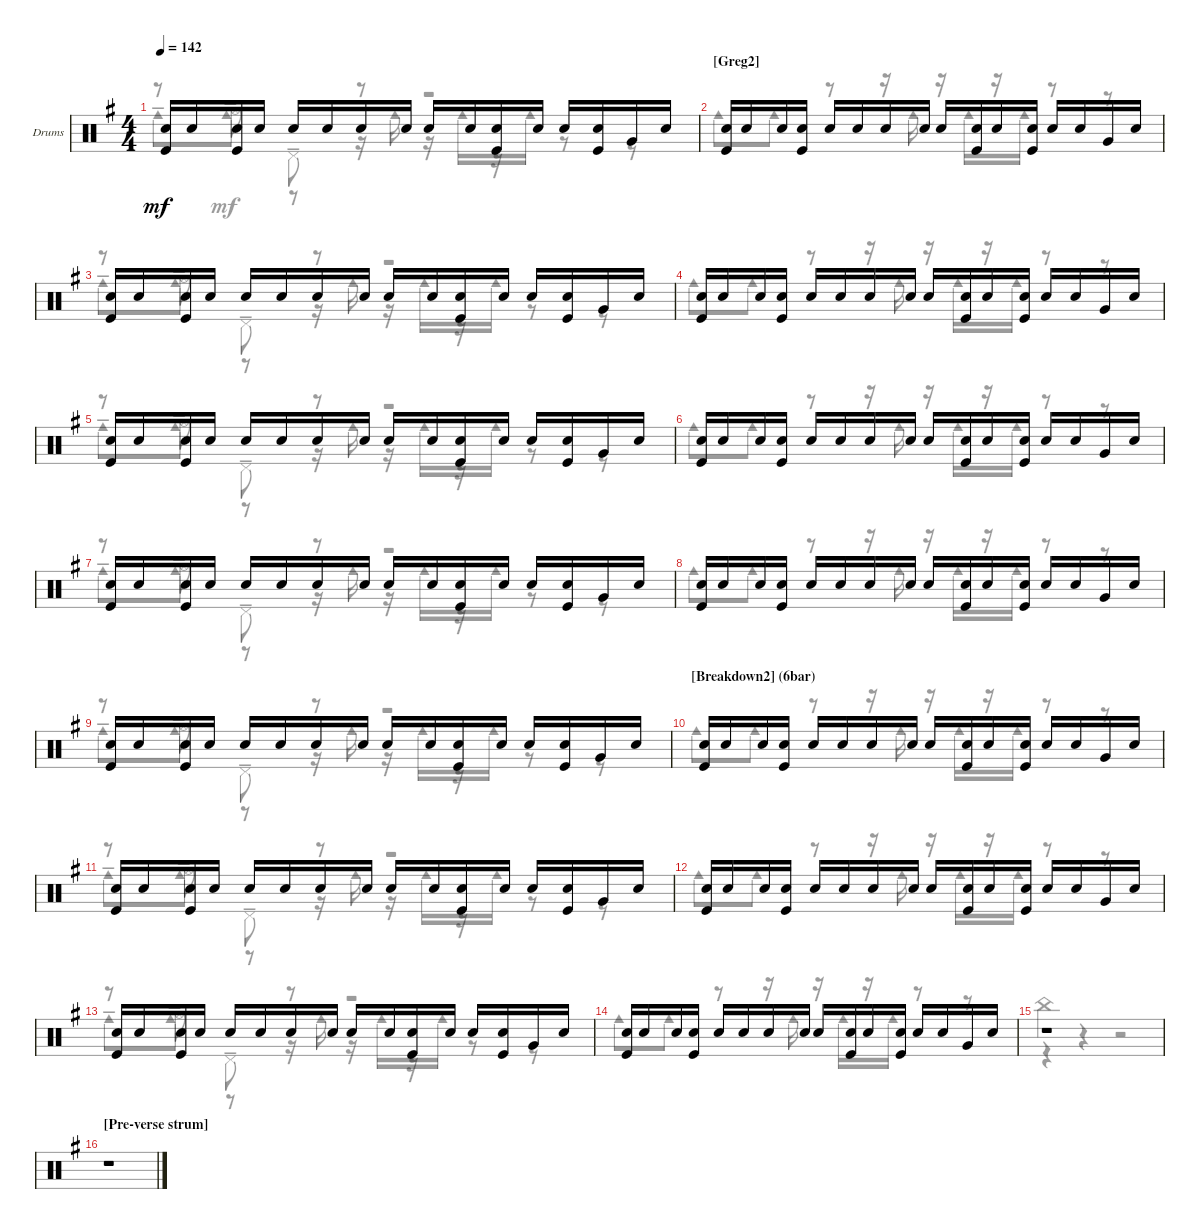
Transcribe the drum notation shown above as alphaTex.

\bracketExtendMode groupsimilarinstruments
\firstSystemTrackNameOrientation horizontal
\otherSystemsTrackNameOrientation horizontal
\track ("Drumkit" "Drums") {instrument percussion}
\staff {score}
\articulation defaults
\voice
\ts (4 4)
\tempo 142
\clef neutral
\ks eminor
("Kick (hit)" "Snare (hit) 2").16{dy mf} "Snare (hit) 2".16 ("Kick (hit)" "Snare (hit) 2").16 "Snare (hit) 2".16 "Snare (hit) 2".16 "Snare (hit) 2".16 "Snare (hit) 2".16 "Snare (hit) 2".16 "Snare (hit) 2".16 "Snare (hit) 2".16 ("Snare (hit) 2" "Kick (hit)").16 "Snare (hit) 2".16 "Snare (hit) 2".16 ("Snare (hit) 2" "Kick (hit)").16 "Very Low Tom (hit)".16 "Snare (hit) 2".16 |
\section ("" "[Greg2]")
("Kick (hit)" "Snare (hit) 2").16 "Snare (hit) 2".16 "Snare (hit) 2".16 ("Snare (hit) 2" "Kick (hit)").16 "Snare (hit) 2".16 "Snare (hit) 2".16 "Snare (hit) 2".16 "Snare (hit) 2".16 "Snare (hit) 2".16 ("Kick (hit)" "Snare (hit) 2").16 "Snare (hit) 2".16 ("Kick (hit)" "Snare (hit) 2").16 "Snare (hit) 2".16 "Snare (hit) 2".16 "Very Low Tom (hit)".16 "Snare (hit) 2".16 |
("Kick (hit)" "Snare (hit) 2").16 "Snare (hit) 2".16 ("Kick (hit)" "Snare (hit) 2").16 "Snare (hit) 2".16 "Snare (hit) 2".16 "Snare (hit) 2".16 "Snare (hit) 2".16 "Snare (hit) 2".16 "Snare (hit) 2".16 "Snare (hit) 2".16 ("Snare (hit) 2" "Kick (hit)").16 "Snare (hit) 2".16 "Snare (hit) 2".16 ("Snare (hit) 2" "Kick (hit)").16 "Very Low Tom (hit)".16 "Snare (hit) 2".16 |
("Kick (hit)" "Snare (hit) 2").16 "Snare (hit) 2".16 "Snare (hit) 2".16 ("Snare (hit) 2" "Kick (hit)").16 "Snare (hit) 2".16 "Snare (hit) 2".16 "Snare (hit) 2".16 "Snare (hit) 2".16 "Snare (hit) 2".16 ("Kick (hit)" "Snare (hit) 2").16 "Snare (hit) 2".16 ("Kick (hit)" "Snare (hit) 2").16 "Snare (hit) 2".16 "Snare (hit) 2".16 "Very Low Tom (hit)".16 "Snare (hit) 2".16 |
("Kick (hit)" "Snare (hit) 2").16 "Snare (hit) 2".16 ("Kick (hit)" "Snare (hit) 2").16 "Snare (hit) 2".16 "Snare (hit) 2".16 "Snare (hit) 2".16 "Snare (hit) 2".16 "Snare (hit) 2".16 "Snare (hit) 2".16 "Snare (hit) 2".16 ("Snare (hit) 2" "Kick (hit)").16 "Snare (hit) 2".16 "Snare (hit) 2".16 ("Snare (hit) 2" "Kick (hit)").16 "Very Low Tom (hit)".16 "Snare (hit) 2".16 |
("Kick (hit)" "Snare (hit) 2").16 "Snare (hit) 2".16 "Snare (hit) 2".16 ("Snare (hit) 2" "Kick (hit)").16 "Snare (hit) 2".16 "Snare (hit) 2".16 "Snare (hit) 2".16 "Snare (hit) 2".16 "Snare (hit) 2".16 ("Kick (hit)" "Snare (hit) 2").16 "Snare (hit) 2".16 ("Kick (hit)" "Snare (hit) 2").16 "Snare (hit) 2".16 "Snare (hit) 2".16 "Very Low Tom (hit)".16 "Snare (hit) 2".16 |
("Kick (hit)" "Snare (hit) 2").16 "Snare (hit) 2".16 ("Kick (hit)" "Snare (hit) 2").16 "Snare (hit) 2".16 "Snare (hit) 2".16 "Snare (hit) 2".16 "Snare (hit) 2".16 "Snare (hit) 2".16 "Snare (hit) 2".16 "Snare (hit) 2".16 ("Snare (hit) 2" "Kick (hit)").16 "Snare (hit) 2".16 "Snare (hit) 2".16 ("Snare (hit) 2" "Kick (hit)").16 "Very Low Tom (hit)".16 "Snare (hit) 2".16 |
("Kick (hit)" "Snare (hit) 2").16 "Snare (hit) 2".16 "Snare (hit) 2".16 ("Snare (hit) 2" "Kick (hit)").16 "Snare (hit) 2".16 "Snare (hit) 2".16 "Snare (hit) 2".16 "Snare (hit) 2".16 "Snare (hit) 2".16 ("Kick (hit)" "Snare (hit) 2").16 "Snare (hit) 2".16 ("Kick (hit)" "Snare (hit) 2").16 "Snare (hit) 2".16 "Snare (hit) 2".16 "Very Low Tom (hit)".16 "Snare (hit) 2".16 |
("Kick (hit)" "Snare (hit) 2").16 "Snare (hit) 2".16 ("Kick (hit)" "Snare (hit) 2").16 "Snare (hit) 2".16 "Snare (hit) 2".16 "Snare (hit) 2".16 "Snare (hit) 2".16 "Snare (hit) 2".16 "Snare (hit) 2".16 "Snare (hit) 2".16 ("Snare (hit) 2" "Kick (hit)").16 "Snare (hit) 2".16 "Snare (hit) 2".16 ("Snare (hit) 2" "Kick (hit)").16 "Very Low Tom (hit)".16 "Snare (hit) 2".16 |
\section ("" "[Breakdown2] (6bar)  ")
("Kick (hit)" "Snare (hit) 2").16 "Snare (hit) 2".16 "Snare (hit) 2".16 ("Snare (hit) 2" "Kick (hit)").16 "Snare (hit) 2".16 "Snare (hit) 2".16 "Snare (hit) 2".16 "Snare (hit) 2".16 "Snare (hit) 2".16 ("Kick (hit)" "Snare (hit) 2").16 "Snare (hit) 2".16 ("Kick (hit)" "Snare (hit) 2").16 "Snare (hit) 2".16 "Snare (hit) 2".16 "Very Low Tom (hit)".16 "Snare (hit) 2".16 |
("Kick (hit)" "Snare (hit) 2").16 "Snare (hit) 2".16 ("Kick (hit)" "Snare (hit) 2").16 "Snare (hit) 2".16 "Snare (hit) 2".16 "Snare (hit) 2".16 "Snare (hit) 2".16 "Snare (hit) 2".16 "Snare (hit) 2".16 "Snare (hit) 2".16 ("Snare (hit) 2" "Kick (hit)").16 "Snare (hit) 2".16 "Snare (hit) 2".16 ("Snare (hit) 2" "Kick (hit)").16 "Very Low Tom (hit)".16 "Snare (hit) 2".16 |
("Kick (hit)" "Snare (hit) 2").16 "Snare (hit) 2".16 "Snare (hit) 2".16 ("Snare (hit) 2" "Kick (hit)").16 "Snare (hit) 2".16 "Snare (hit) 2".16 "Snare (hit) 2".16 "Snare (hit) 2".16 "Snare (hit) 2".16 ("Kick (hit)" "Snare (hit) 2").16 "Snare (hit) 2".16 ("Kick (hit)" "Snare (hit) 2").16 "Snare (hit) 2".16 "Snare (hit) 2".16 "Very Low Tom (hit)".16 "Snare (hit) 2".16 |
("Kick (hit)" "Snare (hit) 2").16 "Snare (hit) 2".16 ("Kick (hit)" "Snare (hit) 2").16 "Snare (hit) 2".16 "Snare (hit) 2".16 "Snare (hit) 2".16 "Snare (hit) 2".16 "Snare (hit) 2".16 "Snare (hit) 2".16 "Snare (hit) 2".16 ("Snare (hit) 2" "Kick (hit)").16 "Snare (hit) 2".16 "Snare (hit) 2".16 ("Snare (hit) 2" "Kick (hit)").16 "Very Low Tom (hit)".16 "Snare (hit) 2".16 |
("Kick (hit)" "Snare (hit) 2").16 "Snare (hit) 2".16 "Snare (hit) 2".16 ("Snare (hit) 2" "Kick (hit)").16 "Snare (hit) 2".16 "Snare (hit) 2".16 "Snare (hit) 2".16 "Snare (hit) 2".16 "Snare (hit) 2".16 ("Kick (hit)" "Snare (hit) 2").16 "Snare (hit) 2".16 ("Kick (hit)" "Snare (hit) 2").16 "Snare (hit) 2".16 "Snare (hit) 2".16 "Very Low Tom (hit)".16 "Snare (hit) 2".16 |
r.1 |
\section ("" "[Pre-verse strum] ")
r.1
\voice
\clef neutral
\ottava regular
\simile none
\ks eminor
r.8{dy mf} "Hi-Hat (open)"{ten}.8 "Pedal Hi-Hat (hit)"{ten}.8 r.8 r.2 |
"Cowbell medium (hit)".8 "Cowbell medium (hit)".8 r.8 r.16 "Cowbell medium (hit)".16 r.16 "Cowbell medium (hit)".16 r.16 "Cowbell medium (hit)".16 r.8 r.8 |
r.8 "Hi-Hat (open)"{ten}.8 "Pedal Hi-Hat (hit)"{ten}.8 r.8 r.2 |
"Cowbell medium (hit)".8 "Cowbell medium (hit)".8 r.8 r.16 "Cowbell medium (hit)".16 r.16 "Cowbell medium (hit)".16 r.16 "Cowbell medium (hit)".16 r.8 r.8 |
r.8 "Hi-Hat (open)"{ten}.8 "Pedal Hi-Hat (hit)"{ten}.8 r.8 r.2 |
"Cowbell medium (hit)".8 "Cowbell medium (hit)".8 r.8 r.16 "Cowbell medium (hit)".16 r.16 "Cowbell medium (hit)".16 r.16 "Cowbell medium (hit)".16 r.8 r.8 |
r.8 "Hi-Hat (open)"{ten}.8 "Pedal Hi-Hat (hit)"{ten}.8 r.8 r.2 |
"Cowbell medium (hit)".8 "Cowbell medium (hit)".8 r.8 r.16 "Cowbell medium (hit)".16 r.16 "Cowbell medium (hit)".16 r.16 "Cowbell medium (hit)".16 r.8 r.8 |
r.8 "Hi-Hat (open)"{ten}.8 "Pedal Hi-Hat (hit)"{ten}.8 r.8 r.2 |
"Cowbell medium (hit)".8 "Cowbell medium (hit)".8 r.8 r.16 "Cowbell medium (hit)".16 r.16 "Cowbell medium (hit)".16 r.16 "Cowbell medium (hit)".16 r.8 r.8 |
r.8 "Hi-Hat (open)"{ten}.8 "Pedal Hi-Hat (hit)"{ten}.8 r.8 r.2 |
"Cowbell medium (hit)".8 "Cowbell medium (hit)".8 r.8 r.16 "Cowbell medium (hit)".16 r.16 "Cowbell medium (hit)".16 r.16 "Cowbell medium (hit)".16 r.8 r.8 |
r.8 "Hi-Hat (open)"{ten}.8 "Pedal Hi-Hat (hit)"{ten}.8 r.8 r.2 |
"Cowbell medium (hit)".8 "Cowbell medium (hit)".8 r.8 r.16 "Cowbell medium (hit)".16 r.16 "Cowbell medium (hit)".16 r.16 "Cowbell medium (hit)".16 r.8 r.8 |
"China (hit)".4 r.4 r.2 |
\voice
\clef neutral
\ottava regular
\simile none
\ks eminor "Cowbell medium (hit)"{ten}.8{dy mf} "Cowbell medium (hit)"{ten}.8
r.8 r.16 "Cowbell medium (hit)"{ten}.16 r.16 "Cowbell medium (hit)"{ten}.16 r.16 "Cowbell medium (hit)"{ten}.16 r.8 r.8 |
|
"Cowbell medium (hit)"{ten}.8 "Cowbell medium (hit)"{ten}.8 r.8 r.16 "Cowbell medium (hit)"{ten}.16 r.16 "Cowbell medium (hit)"{ten}.16 r.16 "Cowbell medium (hit)"{ten}.16 r.8 r.8 |
|
"Cowbell medium (hit)"{ten}.8 "Cowbell medium (hit)"{ten}.8 r.8 r.16 "Cowbell medium (hit)"{ten}.16 r.16 "Cowbell medium (hit)"{ten}.16 r.16 "Cowbell medium (hit)"{ten}.16 r.8 r.8 |
|
"Cowbell medium (hit)"{ten}.8 "Cowbell medium (hit)"{ten}.8 r.8 r.16 "Cowbell medium (hit)"{ten}.16 r.16 "Cowbell medium (hit)"{ten}.16 r.16 "Cowbell medium (hit)"{ten}.16 r.8 r.8 |
|
"Cowbell medium (hit)"{ten}.8 "Cowbell medium (hit)"{ten}.8 r.8 r.16 "Cowbell medium (hit)"{ten}.16 r.16 "Cowbell medium (hit)"{ten}.16 r.16 "Cowbell medium (hit)"{ten}.16 r.8 r.8 |
|
"Cowbell medium (hit)"{ten}.8 "Cowbell medium (hit)"{ten}.8 r.8 r.16 "Cowbell medium (hit)"{ten}.16 r.16 "Cowbell medium (hit)"{ten}.16 r.16 "Cowbell medium (hit)"{ten}.16 r.8 r.8 |
|
"Cowbell medium (hit)"{ten}.8 "Cowbell medium (hit)"{ten}.8 r.8 r.16 "Cowbell medium (hit)"{ten}.16 r.16 "Cowbell medium (hit)"{ten}.16 r.16 "Cowbell medium (hit)"{ten}.16 r.8 r.8 |
|
r.4 |
